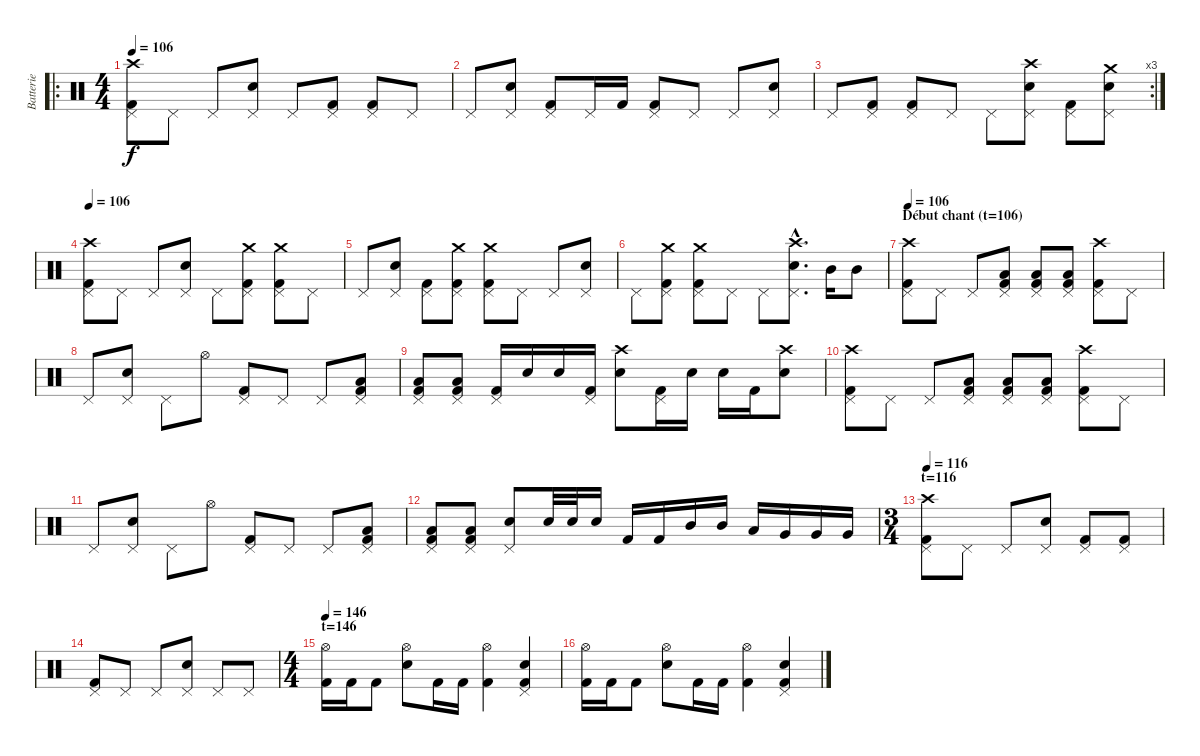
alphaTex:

\track ("Batterie" "Batterie") {instrument percussion}
\staff {score}
\articulation defaults
\ro
\ts (4 4)
\tempo 106
\clef neutral
\ks c
("Crash high (hit)" "Pedal Hi-Hat (hit)" "Kick (hit) 2").8{dy f} "Pedal Hi-Hat (hit)".8 "Pedal Hi-Hat (hit)".8 ("Pedal Hi-Hat (hit)" "Electric Snare (hit)").8 "Pedal Hi-Hat (hit)".8 ("Pedal Hi-Hat (hit)" "Kick (hit) 2").8 ("Pedal Hi-Hat (hit)" "Kick (hit) 2").8 "Pedal Hi-Hat (hit)".8 |
"Pedal Hi-Hat (hit)".8 ("Pedal Hi-Hat (hit)" "Electric Snare (hit)").8 ("Pedal Hi-Hat (hit)" "Kick (hit) 2").8 "Pedal Hi-Hat (hit)".16 "Kick (hit) 2".16 ("Pedal Hi-Hat (hit)" "Kick (hit) 2").8 "Pedal Hi-Hat (hit)".8 "Pedal Hi-Hat (hit)".8 ("Pedal Hi-Hat (hit)" "Electric Snare (hit)").8 |
\rc 3 "Pedal Hi-Hat (hit)".8
("Pedal Hi-Hat (hit)" "Kick (hit) 2").8 ("Pedal Hi-Hat (hit)" "Kick (hit) 2").8 "Pedal Hi-Hat (hit)".8 "Pedal Hi-Hat (hit)".8 ("Crash high (hit)" "Pedal Hi-Hat (hit)" "Electric Snare (hit)").8 ("Pedal Hi-Hat (hit)" "Kick (hit) 2").8 ("Crash medium (hit)" "Pedal Hi-Hat (hit)" "Electric Snare (hit)").8 |
\tempo 106
("Crash high (hit)" "Pedal Hi-Hat (hit)" "Kick (hit) 2").8 "Pedal Hi-Hat (hit)".8 "Pedal Hi-Hat (hit)".8 ("Pedal Hi-Hat (hit)" "Electric Snare (hit)").8 "Pedal Hi-Hat (hit)".8 ("Crash medium (hit)" "Pedal Hi-Hat (hit)" "Kick (hit) 2").8 ("Crash medium (hit)" "Pedal Hi-Hat (hit)" "Kick (hit) 2").8 "Pedal Hi-Hat (hit)".8 |
"Pedal Hi-Hat (hit)".8 ("Pedal Hi-Hat (hit)" "Electric Snare (hit)").8 ("Pedal Hi-Hat (hit)" "Kick (hit) 2").8 ("Crash medium (hit)" "Pedal Hi-Hat (hit)" "Kick (hit) 2").8 ("Crash medium (hit)" "Pedal Hi-Hat (hit)" "Kick (hit) 2").8 "Pedal Hi-Hat (hit)".8 "Pedal Hi-Hat (hit)".8 ("Pedal Hi-Hat (hit)" "Electric Snare (hit)").8 |
"Pedal Hi-Hat (hit)".8 ("Crash medium (hit)" "Pedal Hi-Hat (hit)" "Kick (hit) 2").8 ("Crash medium (hit)" "Pedal Hi-Hat (hit)" "Kick (hit) 2").8 "Pedal Hi-Hat (hit)".8 "Pedal Hi-Hat (hit)".8 ("Crash high (hit)"{hac} "Pedal Hi-Hat (hit)"{hac} "Electric Snare (hit)"{hac}).8{d} "Mid Tom (hit)".16 "Mid Tom (hit)".8 |
\section ("" "Début chant (t=106)")
\tempo 106
("Crash high (hit)" "Pedal Hi-Hat (hit)" "Kick (hit) 2").8 "Pedal Hi-Hat (hit)".8 "Pedal Hi-Hat (hit)".8 ("Low Tom (hit)" "Pedal Hi-Hat (hit)" "Kick (hit) 2").8 ("Low Tom (hit)" "Pedal Hi-Hat (hit)" "Kick (hit) 2").8 ("Low Tom (hit)" "Pedal Hi-Hat (hit)" "Kick (hit) 2").8 ("Crash high (hit)" "Pedal Hi-Hat (hit)" "Kick (hit) 2").8 "Pedal Hi-Hat (hit)".8 |
"Pedal Hi-Hat (hit)".8 ("Pedal Hi-Hat (hit)" "Electric Snare (hit)").8 "Pedal Hi-Hat (hit)".8 "Hi-Hat (open)".8 ("Pedal Hi-Hat (hit)" "Kick (hit) 2").8 "Pedal Hi-Hat (hit)".8 "Pedal Hi-Hat (hit)".8 ("Low Tom (hit)" "Pedal Hi-Hat (hit)" "Kick (hit) 2").8 |
("Low Tom (hit)" "Pedal Hi-Hat (hit)" "Kick (hit) 2").8 ("Low Tom (hit)" "Pedal Hi-Hat (hit)" "Kick (hit) 2").8 ("Pedal Hi-Hat (hit)" "Kick (hit) 2").16 "Electric Snare (hit)".16 "Electric Snare (hit)".16 ("Pedal Hi-Hat (hit)" "Kick (hit) 2").16 ("Crash high (hit)" "Electric Snare (hit)").8 ("Pedal Hi-Hat (hit)" "Kick (hit) 2").16 "Electric Snare (hit)".16 "Electric Snare (hit)".16 "Kick (hit) 2".16 ("Crash high (hit)" "Electric Snare (hit)").8 |
("Crash high (hit)" "Pedal Hi-Hat (hit)" "Kick (hit) 2").8 "Pedal Hi-Hat (hit)".8 "Pedal Hi-Hat (hit)".8 ("Low Tom (hit)" "Pedal Hi-Hat (hit)" "Kick (hit) 2").8 ("Low Tom (hit)" "Pedal Hi-Hat (hit)" "Kick (hit) 2").8 ("Low Tom (hit)" "Pedal Hi-Hat (hit)" "Kick (hit) 2").8 ("Crash high (hit)" "Pedal Hi-Hat (hit)" "Kick (hit) 2").8 "Pedal Hi-Hat (hit)".8 |
"Pedal Hi-Hat (hit)".8 ("Pedal Hi-Hat (hit)" "Electric Snare (hit)").8 "Pedal Hi-Hat (hit)".8 "Hi-Hat (open)".8 ("Pedal Hi-Hat (hit)" "Kick (hit) 2").8 "Pedal Hi-Hat (hit)".8 "Pedal Hi-Hat (hit)".8 ("Low Tom (hit)" "Pedal Hi-Hat (hit)" "Kick (hit) 2").8 |
("Low Tom (hit)" "Pedal Hi-Hat (hit)" "Kick (hit) 2").8 ("Low Tom (hit)" "Pedal Hi-Hat (hit)" "Kick (hit) 2").8 ("Pedal Hi-Hat (hit)" "Electric Snare (hit)").8 "Electric Snare (hit)".32 "Electric Snare (hit)".32 "Electric Snare (hit)".16 "Kick (hit) 2".16 "Kick (hit) 2".16 "Mid Tom (hit)".16 "Mid Tom (hit)".16 "Low Tom (hit)".16 "Very Low Tom (hit)".16 "Very Low Tom (hit)".16 "Very Low Tom (hit)".16 |
\ts (3 4)
\section ("" "t=116")
\tempo 116
("Crash high (hit)" "Pedal Hi-Hat (hit)" "Kick (hit) 2").8 "Pedal Hi-Hat (hit)".8 "Pedal Hi-Hat (hit)".8 ("Pedal Hi-Hat (hit)" "Electric Snare (hit)").8 ("Pedal Hi-Hat (hit)" "Kick (hit) 2").8 ("Pedal Hi-Hat (hit)" "Kick (hit) 2").8 |
("Pedal Hi-Hat (hit)" "Kick (hit) 2").8 "Pedal Hi-Hat (hit)".8 "Pedal Hi-Hat (hit)".8 ("Pedal Hi-Hat (hit)" "Electric Snare (hit)").8 "Pedal Hi-Hat (hit)".8 "Pedal Hi-Hat (hit)".8 |
\ts (4 4)
\section ("" "t=146")
\tempo 146
("Hi-Hat (open)" "Kick (hit) 2").16 "Kick (hit) 2".16 "Kick (hit) 2".8 ("Hi-Hat (open)" "Electric Snare (hit)").8 "Kick (hit) 2".16 "Kick (hit) 2".16 ("Hi-Hat (open)" "Kick (hit) 2").4 ("Kick (hit) 2" "Pedal Hi-Hat (hit)" "Electric Snare (hit)").4 |
("Hi-Hat (open)" "Kick (hit) 2").16 "Kick (hit) 2".16 "Kick (hit) 2".8 ("Hi-Hat (open)" "Electric Snare (hit)").8 "Kick (hit) 2".16 "Kick (hit) 2".16 ("Hi-Hat (open)" "Kick (hit) 2").4 ("Kick (hit) 2" "Pedal Hi-Hat (hit)" "Electric Snare (hit)").4
